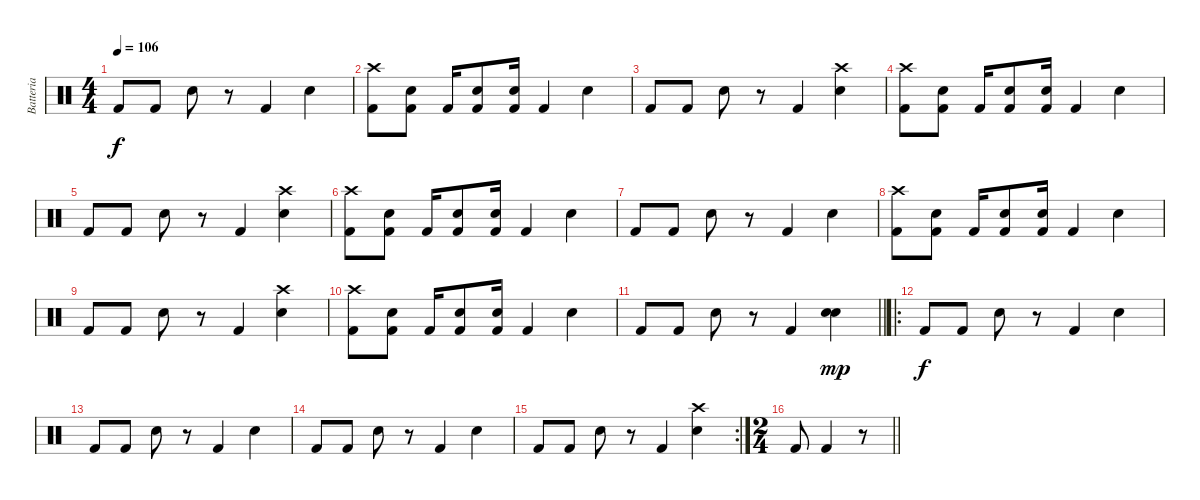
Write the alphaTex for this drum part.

\track ("Batteria" "Batteria") {instrument percussion}
\staff {score}
\articulation defaults
\ts (4 4)
\tempo 106
\clef neutral
\ks c "Kick (hit) 2".8{dy f} "Kick (hit) 2".8 "Electric Snare (hit)".8
r.8 "Kick (hit) 2".4 "Electric Snare (hit)".4 |
("Crash high (hit)" "Kick (hit) 2").8 ("Electric Snare (hit)" "Kick (hit) 2").8 "Kick (hit) 2".16 ("Electric Snare (hit)" "Kick (hit) 2").8 ("Electric Snare (hit)" "Kick (hit) 2").16 "Kick (hit) 2".4 "Electric Snare (hit)".4 |
"Kick (hit) 2".8 "Kick (hit) 2".8 "Electric Snare (hit)".8 r.8 "Kick (hit) 2".4 ("Electric Snare (hit)" "Crash high (hit)").4 |
("Crash high (hit)" "Kick (hit) 2").8 ("Electric Snare (hit)" "Kick (hit) 2").8 "Kick (hit) 2".16 ("Electric Snare (hit)" "Kick (hit) 2").8 ("Electric Snare (hit)" "Kick (hit) 2").16 "Kick (hit) 2".4 "Electric Snare (hit)".4 |
"Kick (hit) 2".8 "Kick (hit) 2".8 "Electric Snare (hit)".8 r.8 "Kick (hit) 2".4 ("Electric Snare (hit)" "Crash high (hit)").4 |
("Crash high (hit)" "Kick (hit) 2").8 ("Electric Snare (hit)" "Kick (hit) 2").8 "Kick (hit) 2".16 ("Electric Snare (hit)" "Kick (hit) 2").8 ("Electric Snare (hit)" "Kick (hit) 2").16 "Kick (hit) 2".4 "Electric Snare (hit)".4 |
"Kick (hit) 2".8 "Kick (hit) 2".8 "Electric Snare (hit)".8 r.8 "Kick (hit) 2".4 "Electric Snare (hit)".4 |
("Crash high (hit)" "Kick (hit) 2").8 ("Electric Snare (hit)" "Kick (hit) 2").8 "Kick (hit) 2".16 ("Electric Snare (hit)" "Kick (hit) 2").8 ("Electric Snare (hit)" "Kick (hit) 2").16 "Kick (hit) 2".4 "Electric Snare (hit)".4 |
"Kick (hit) 2".8 "Kick (hit) 2".8 "Electric Snare (hit)".8 r.8 "Kick (hit) 2".4 ("Electric Snare (hit)" "Crash high (hit)").4 |
("Crash high (hit)" "Kick (hit) 2").8 ("Electric Snare (hit)" "Kick (hit) 2").8 "Kick (hit) 2".16 ("Electric Snare (hit)" "Kick (hit) 2").8 ("Electric Snare (hit)" "Kick (hit) 2").16 "Kick (hit) 2".4 "Electric Snare (hit)".4 |
\barLineRight lightlight "Kick (hit) 2".8 "Kick (hit) 2".8 "Electric Snare (hit)".8
r.8 "Kick (hit) 2".4 ("Electric Snare (hit)" "Electric Snare (hit)").4{bd 480 dy mp} |
\ro "Kick (hit) 2".8{dy f} "Kick (hit) 2".8 "Electric Snare (hit)".8
r.8 "Kick (hit) 2".4 "Electric Snare (hit)".4 |
"Kick (hit) 2".8 "Kick (hit) 2".8 "Electric Snare (hit)".8 r.8 "Kick (hit) 2".4 "Electric Snare (hit)".4 |
"Kick (hit) 2".8 "Kick (hit) 2".8 "Electric Snare (hit)".8 r.8 "Kick (hit) 2".4 "Electric Snare (hit)".4 |
\rc 2 "Kick (hit) 2".8 "Kick (hit) 2".8 "Electric Snare (hit)".8
r.8 "Kick (hit) 2".4 ("Electric Snare (hit)" "Crash high (hit)").4 |
\ts (2 4)
\barLineRight lightlight "Kick (hit) 2".8 "Kick (hit) 2".4
r.8
